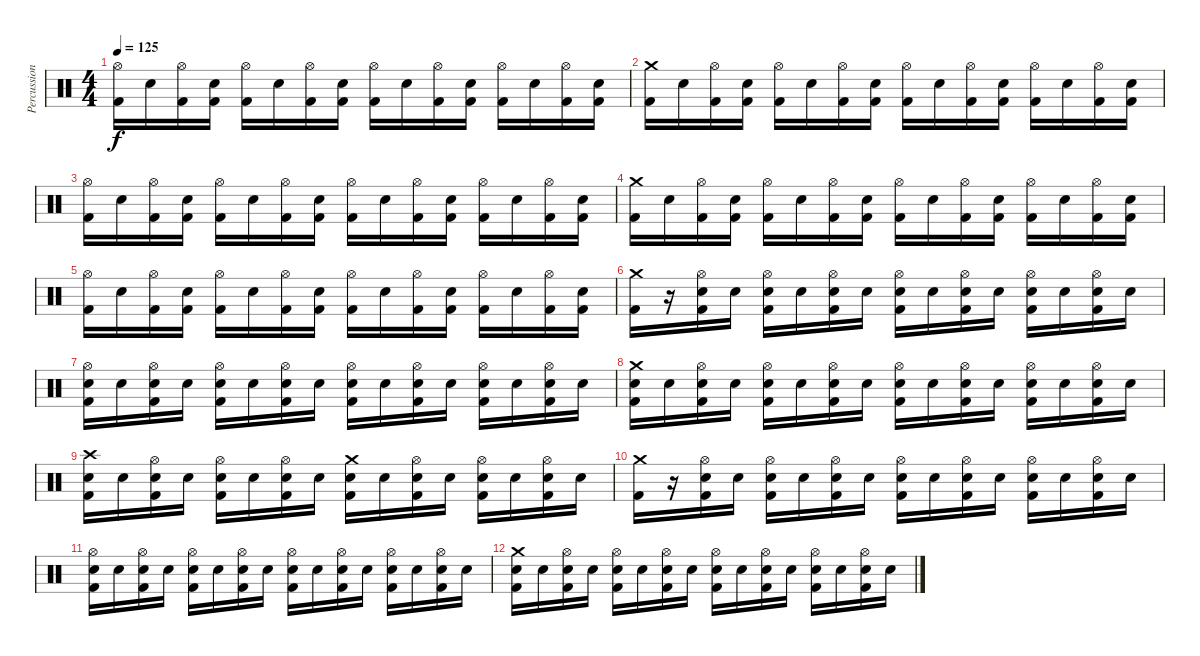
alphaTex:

\track ("Percussion" "Percussion") {instrument percussion}
\staff {score}
\articulation defaults
\ts (4 4)
\tempo 125
\clef neutral
\ks c
("Hi-Hat (open)" "Kick (hit) 2").16{dy f} "Snare (hit) 2".16 ("Hi-Hat (open)" "Kick (hit) 2").16 ("Snare (hit) 2" "Kick (hit) 2").16 ("Hi-Hat (open)" "Kick (hit) 2").16 "Snare (hit) 2".16 ("Hi-Hat (open)" "Kick (hit) 2").16 ("Snare (hit) 2" "Kick (hit) 2").16 ("Hi-Hat (open)" "Kick (hit) 2").16 "Snare (hit) 2".16 ("Hi-Hat (open)" "Kick (hit) 2").16 ("Snare (hit) 2" "Kick (hit) 2").16 ("Hi-Hat (open)" "Kick (hit) 2").16 "Snare (hit) 2".16 ("Hi-Hat (open)" "Kick (hit) 2").16 ("Snare (hit) 2" "Kick (hit) 2").16 |
("Crash medium (hit)" "Kick (hit) 2").16 "Snare (hit) 2".16 ("Hi-Hat (open)" "Kick (hit) 2").16 ("Snare (hit) 2" "Kick (hit) 2").16 ("Hi-Hat (open)" "Kick (hit) 2").16 "Snare (hit) 2".16 ("Hi-Hat (open)" "Kick (hit) 2").16 ("Snare (hit) 2" "Kick (hit) 2").16 ("Hi-Hat (open)" "Kick (hit) 2").16 "Snare (hit) 2".16 ("Hi-Hat (open)" "Kick (hit) 2").16 ("Snare (hit) 2" "Kick (hit) 2").16 ("Hi-Hat (open)" "Kick (hit) 2").16 "Snare (hit) 2".16 ("Hi-Hat (open)" "Kick (hit) 2").16 ("Snare (hit) 2" "Kick (hit) 2").16 |
("Hi-Hat (open)" "Kick (hit) 2").16 "Snare (hit) 2".16 ("Hi-Hat (open)" "Kick (hit) 2").16 ("Snare (hit) 2" "Kick (hit) 2").16 ("Hi-Hat (open)" "Kick (hit) 2").16 "Snare (hit) 2".16 ("Hi-Hat (open)" "Kick (hit) 2").16 ("Snare (hit) 2" "Kick (hit) 2").16 ("Hi-Hat (open)" "Kick (hit) 2").16 "Snare (hit) 2".16 ("Hi-Hat (open)" "Kick (hit) 2").16 ("Snare (hit) 2" "Kick (hit) 2").16 ("Hi-Hat (open)" "Kick (hit) 2").16 "Snare (hit) 2".16 ("Hi-Hat (open)" "Kick (hit) 2").16 ("Snare (hit) 2" "Kick (hit) 2").16 |
("Crash medium (hit)" "Kick (hit) 2").16 "Snare (hit) 2".16 ("Hi-Hat (open)" "Kick (hit) 2").16 ("Snare (hit) 2" "Kick (hit) 2").16 ("Hi-Hat (open)" "Kick (hit) 2").16 "Snare (hit) 2".16 ("Hi-Hat (open)" "Kick (hit) 2").16 ("Snare (hit) 2" "Kick (hit) 2").16 ("Hi-Hat (open)" "Kick (hit) 2").16 "Snare (hit) 2".16 ("Hi-Hat (open)" "Kick (hit) 2").16 ("Snare (hit) 2" "Kick (hit) 2").16 ("Hi-Hat (open)" "Kick (hit) 2").16 "Snare (hit) 2".16 ("Hi-Hat (open)" "Kick (hit) 2").16 ("Snare (hit) 2" "Kick (hit) 2").16 |
("Hi-Hat (open)" "Kick (hit) 2").16 "Snare (hit) 2".16 ("Hi-Hat (open)" "Kick (hit) 2").16 ("Snare (hit) 2" "Kick (hit) 2").16 ("Hi-Hat (open)" "Kick (hit) 2").16 "Snare (hit) 2".16 ("Hi-Hat (open)" "Kick (hit) 2").16 ("Snare (hit) 2" "Kick (hit) 2").16 ("Hi-Hat (open)" "Kick (hit) 2").16 "Snare (hit) 2".16 ("Hi-Hat (open)" "Kick (hit) 2").16 ("Snare (hit) 2" "Kick (hit) 2").16 ("Hi-Hat (open)" "Kick (hit) 2").16 "Snare (hit) 2".16 ("Hi-Hat (open)" "Kick (hit) 2").16 ("Snare (hit) 2" "Kick (hit) 2").16 |
("Crash medium (hit)" "Kick (hit) 2").16 r.16 ("Hi-Hat (open)" "Snare (hit) 2" "Kick (hit) 2").16 "Snare (hit) 2".16 ("Hi-Hat (open)" "Snare (hit) 2" "Kick (hit) 2").16 "Snare (hit) 2".16 ("Hi-Hat (open)" "Snare (hit) 2" "Kick (hit) 2").16 "Snare (hit) 2".16 ("Hi-Hat (open)" "Snare (hit) 2" "Kick (hit) 2").16 "Snare (hit) 2".16 ("Hi-Hat (open)" "Snare (hit) 2" "Kick (hit) 2").16 "Snare (hit) 2".16 ("Hi-Hat (open)" "Snare (hit) 2" "Kick (hit) 2").16 "Snare (hit) 2".16 ("Hi-Hat (open)" "Snare (hit) 2" "Kick (hit) 2").16 "Snare (hit) 2".16 |
("Hi-Hat (open)" "Snare (hit) 2" "Kick (hit) 2").16 "Snare (hit) 2".16 ("Hi-Hat (open)" "Snare (hit) 2" "Kick (hit) 2").16 "Snare (hit) 2".16 ("Hi-Hat (open)" "Snare (hit) 2" "Kick (hit) 2").16 "Snare (hit) 2".16 ("Hi-Hat (open)" "Snare (hit) 2" "Kick (hit) 2").16 "Snare (hit) 2".16 ("Hi-Hat (open)" "Snare (hit) 2" "Kick (hit) 2").16 "Snare (hit) 2".16 ("Hi-Hat (open)" "Snare (hit) 2" "Kick (hit) 2").16 "Snare (hit) 2".16 ("Hi-Hat (open)" "Snare (hit) 2" "Kick (hit) 2").16 "Snare (hit) 2".16 ("Hi-Hat (open)" "Snare (hit) 2" "Kick (hit) 2").16 "Snare (hit) 2".16 |
("Crash medium (hit)" "Snare (hit) 2" "Kick (hit) 2").16 "Snare (hit) 2".16 ("Hi-Hat (open)" "Snare (hit) 2" "Kick (hit) 2").16 "Snare (hit) 2".16 ("Hi-Hat (open)" "Snare (hit) 2" "Kick (hit) 2").16 "Snare (hit) 2".16 ("Hi-Hat (open)" "Snare (hit) 2" "Kick (hit) 2").16 "Snare (hit) 2".16 ("Hi-Hat (open)" "Snare (hit) 2" "Kick (hit) 2").16 "Snare (hit) 2".16 ("Hi-Hat (open)" "Snare (hit) 2" "Kick (hit) 2").16 "Snare (hit) 2".16 ("Hi-Hat (open)" "Snare (hit) 2" "Kick (hit) 2").16 "Snare (hit) 2".16 ("Hi-Hat (open)" "Snare (hit) 2" "Kick (hit) 2").16 "Snare (hit) 2".16 |
("Crash high (hit)" "Snare (hit) 2" "Kick (hit) 2").16 "Snare (hit) 2".16 ("Hi-Hat (open)" "Snare (hit) 2" "Kick (hit) 2").16 "Snare (hit) 2".16 ("Hi-Hat (open)" "Snare (hit) 2" "Kick (hit) 2").16 "Snare (hit) 2".16 ("Hi-Hat (open)" "Snare (hit) 2" "Kick (hit) 2").16 "Snare (hit) 2".16 ("Crash medium (hit)" "Snare (hit) 2" "Kick (hit) 2").16 "Snare (hit) 2".16 ("Hi-Hat (open)" "Snare (hit) 2" "Kick (hit) 2").16 "Snare (hit) 2".16 ("Hi-Hat (open)" "Snare (hit) 2" "Kick (hit) 2").16 "Snare (hit) 2".16 ("Hi-Hat (open)" "Snare (hit) 2" "Kick (hit) 2").16 "Snare (hit) 2".16 |
("Crash medium (hit)" "Kick (hit) 2").16 r.16 ("Hi-Hat (open)" "Snare (hit) 2" "Kick (hit) 2").16 "Snare (hit) 2".16 ("Hi-Hat (open)" "Snare (hit) 2" "Kick (hit) 2").16 "Snare (hit) 2".16 ("Hi-Hat (open)" "Snare (hit) 2" "Kick (hit) 2").16 "Snare (hit) 2".16 ("Hi-Hat (open)" "Snare (hit) 2" "Kick (hit) 2").16 "Snare (hit) 2".16 ("Hi-Hat (open)" "Snare (hit) 2" "Kick (hit) 2").16 "Snare (hit) 2".16 ("Hi-Hat (open)" "Snare (hit) 2" "Kick (hit) 2").16 "Snare (hit) 2".16 ("Hi-Hat (open)" "Snare (hit) 2" "Kick (hit) 2").16 "Snare (hit) 2".16 |
("Hi-Hat (open)" "Snare (hit) 2" "Kick (hit) 2").16 "Snare (hit) 2".16 ("Hi-Hat (open)" "Snare (hit) 2" "Kick (hit) 2").16 "Snare (hit) 2".16 ("Hi-Hat (open)" "Snare (hit) 2" "Kick (hit) 2").16 "Snare (hit) 2".16 ("Hi-Hat (open)" "Snare (hit) 2" "Kick (hit) 2").16 "Snare (hit) 2".16 ("Hi-Hat (open)" "Snare (hit) 2" "Kick (hit) 2").16 "Snare (hit) 2".16 ("Hi-Hat (open)" "Snare (hit) 2" "Kick (hit) 2").16 "Snare (hit) 2".16 ("Hi-Hat (open)" "Snare (hit) 2" "Kick (hit) 2").16 "Snare (hit) 2".16 ("Hi-Hat (open)" "Snare (hit) 2" "Kick (hit) 2").16 "Snare (hit) 2".16 |
("Crash medium (hit)" "Snare (hit) 2" "Kick (hit) 2").16 "Snare (hit) 2".16 ("Hi-Hat (open)" "Snare (hit) 2" "Kick (hit) 2").16 "Snare (hit) 2".16 ("Hi-Hat (open)" "Snare (hit) 2" "Kick (hit) 2").16 "Snare (hit) 2".16 ("Hi-Hat (open)" "Snare (hit) 2" "Kick (hit) 2").16 "Snare (hit) 2".16 ("Hi-Hat (open)" "Snare (hit) 2" "Kick (hit) 2").16 "Snare (hit) 2".16 ("Hi-Hat (open)" "Snare (hit) 2" "Kick (hit) 2").16 "Snare (hit) 2".16 ("Hi-Hat (open)" "Snare (hit) 2" "Kick (hit) 2").16 "Snare (hit) 2".16 ("Hi-Hat (open)" "Snare (hit) 2" "Kick (hit) 2").16 "Snare (hit) 2".16
